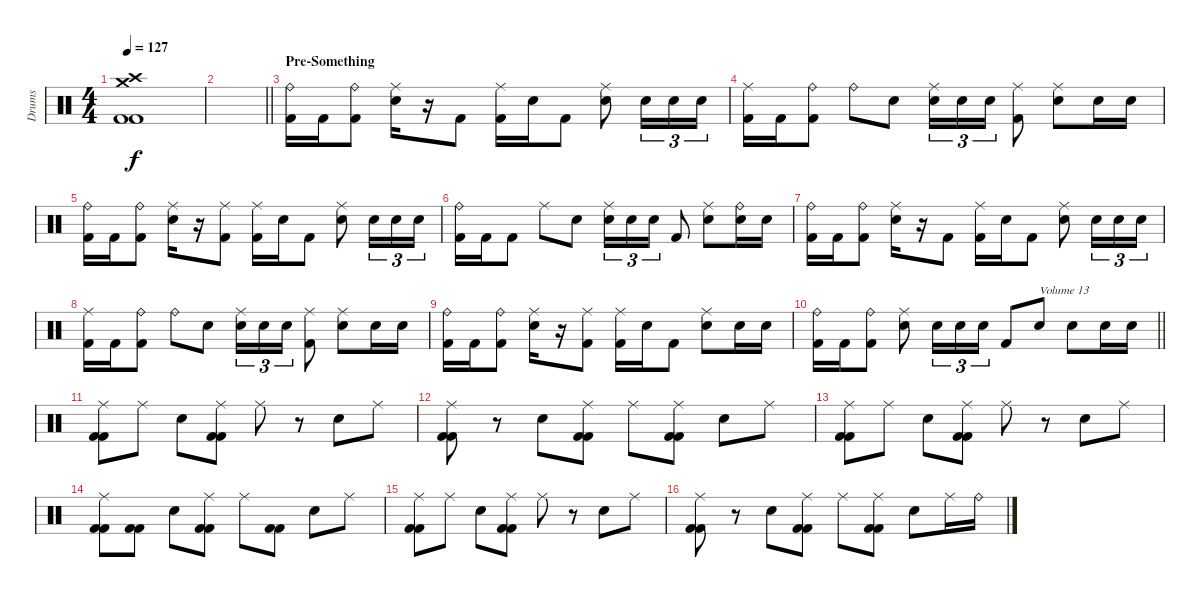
\track ("Drums" "Drums") {instrument percussion}
\staff {score}
\articulation defaults
\ts (4 4)
\tempo 127
\clef neutral
\ks c
("Crash medium (hit)" "Crash high (hit)" "Kick (hit) 2" "Kick (hit) 2").1{dy f} |
\barLineRight lightlight
|
\section ("" "Pre-Something")
("Ride (bell)" "Kick (hit) 2").16 "Kick (hit) 2".16 ("Ride (bell)" "Kick (hit) 2").8 ("Ride (middle)" "Snare (hit) 2").16 r.16 "Kick (hit) 2".8 ("Ride (middle)" "Kick (hit) 2").16 "Snare (hit) 2".16 "Kick (hit) 2".8 ("Ride (middle)" "Snare (hit) 2").8 "Snare (hit) 2".16{tu (3 2)} "Snare (hit) 2".16{tu (3 2)} "Snare (hit) 2".16{tu (3 2)} |
("Ride (middle)" "Kick (hit) 2").16 "Kick (hit) 2".16 ("Ride (bell)" "Kick (hit) 2").8 "Ride (bell)".8 "Snare (hit) 2".8 ("Ride (middle)" "Snare (hit) 2").16{tu (3 2)} "Snare (hit) 2".16{tu (3 2)} "Snare (hit) 2".16{tu (3 2)} ("Ride (middle)" "Kick (hit) 2").8 ("Ride (middle)" "Snare (hit) 2").8 "Snare (hit) 2".16 "Snare (hit) 2".16 |
("Ride (bell)" "Kick (hit) 2").16 "Kick (hit) 2".16 ("Ride (bell)" "Kick (hit) 2").8 ("Ride (middle)" "Snare (hit) 2").16 r.16 ("Ride (middle)" "Kick (hit) 2").8 ("Ride (middle)" "Kick (hit) 2").16 "Snare (hit) 2".16 "Kick (hit) 2".8 ("Ride (middle)" "Snare (hit) 2").8 "Snare (hit) 2".16{tu (3 2)} "Snare (hit) 2".16{tu (3 2)} "Snare (hit) 2".16{tu (3 2)} |
("Ride (bell)" "Kick (hit) 2").16 "Kick (hit) 2".16 "Kick (hit) 2".8 "Ride (middle)".8 "Snare (hit) 2".8 ("Ride (middle)" "Snare (hit) 2").16{tu (3 2)} "Snare (hit) 2".16{tu (3 2)} "Snare (hit) 2".16{tu (3 2)} "Kick (hit) 2".8 ("Ride (middle)" "Snare (hit) 2").8 ("Ride (bell)" "Snare (hit) 2").16 "Snare (hit) 2".16 |
("Ride (bell)" "Kick (hit) 2").16 "Kick (hit) 2".16 ("Ride (bell)" "Kick (hit) 2").8 ("Ride (middle)" "Snare (hit) 2").16 r.16 "Kick (hit) 2".8 ("Ride (middle)" "Kick (hit) 2").16 "Snare (hit) 2".16 "Kick (hit) 2".8 ("Ride (middle)" "Snare (hit) 2").8 "Snare (hit) 2".16{tu (3 2)} "Snare (hit) 2".16{tu (3 2)} "Snare (hit) 2".16{tu (3 2)} |
("Ride (middle)" "Kick (hit) 2").16 "Kick (hit) 2".16 ("Ride (bell)" "Kick (hit) 2").8 "Ride (bell)".8 "Snare (hit) 2".8 ("Ride (middle)" "Snare (hit) 2").16{tu (3 2)} "Snare (hit) 2".16{tu (3 2)} "Snare (hit) 2".16{tu (3 2)} ("Ride (middle)" "Kick (hit) 2").8 ("Ride (middle)" "Snare (hit) 2").8 "Snare (hit) 2".16 "Snare (hit) 2".16 |
("Ride (bell)" "Kick (hit) 2").16 "Kick (hit) 2".16 ("Ride (bell)" "Kick (hit) 2").8 ("Ride (middle)" "Snare (hit) 2").16 r.16 ("Ride (middle)" "Kick (hit) 2").8 ("Ride (middle)" "Kick (hit) 2").16 "Snare (hit) 2".16 "Kick (hit) 2".8 ("Ride (middle)" "Snare (hit) 2").8 "Snare (hit) 2".16 "Snare (hit) 2".16 |
\barLineRight lightlight
("Ride (bell)" "Kick (hit) 2").16 "Kick (hit) 2".16 ("Ride (bell)" "Kick (hit) 2").8 ("Ride (middle)" "Snare (hit) 2").8 "Snare (hit) 2".16{tu (3 2)} "Snare (hit) 2".16{tu (3 2)} "Snare (hit) 2".16{tu (3 2)} "Kick (hit) 2".8 "Electric Snare (hit)".8{txt "Volume 13" volume 13} "Electric Snare (hit)".8 "Electric Snare (hit)".16 "Electric Snare (hit)".16 |
("Ride (middle)" "Kick (hit) 2" "Kick (hit) 2").8 "Ride (middle)".8 "Electric Snare (hit)".8 ("Ride (middle)" "Kick (hit) 2" "Kick (hit) 2").8 "Ride (middle)".8 r.8 "Electric Snare (hit)".8 "Ride (middle)".8 |
("Ride (middle)" "Kick (hit) 2" "Kick (hit) 2").8 r.8 "Electric Snare (hit)".8 ("Ride (middle)" "Kick (hit) 2" "Kick (hit) 2").8 "Ride (middle)".8 ("Ride (middle)" "Kick (hit) 2" "Kick (hit) 2").8 "Electric Snare (hit)".8 "Ride (middle)".8 |
("Ride (middle)" "Kick (hit) 2" "Kick (hit) 2").8 "Ride (middle)".8 "Electric Snare (hit)".8 ("Ride (middle)" "Kick (hit) 2" "Kick (hit) 2").8 "Ride (middle)".8 r.8 "Electric Snare (hit)".8 "Ride (middle)".8 |
("Ride (middle)" "Kick (hit) 2" "Kick (hit) 2").8 ("Kick (hit) 2" "Kick (hit) 2").8 "Electric Snare (hit)".8 ("Ride (middle)" "Kick (hit) 2" "Kick (hit) 2").8 "Ride (middle)".8 ("Kick (hit) 2" "Kick (hit) 2").8 "Electric Snare (hit)".8 "Ride (middle)".8 |
("Ride (middle)" "Kick (hit) 2" "Kick (hit) 2").8 "Ride (middle)".8 "Electric Snare (hit)".8 ("Ride (middle)" "Kick (hit) 2" "Kick (hit) 2").8 "Ride (middle)".8 r.8 "Electric Snare (hit)".8 "Ride (middle)".8 |
("Ride (middle)" "Kick (hit) 2" "Kick (hit) 2").8 r.8 "Electric Snare (hit)".8 ("Ride (middle)" "Kick (hit) 2" "Kick (hit) 2").8 "Ride (middle)".8 ("Ride (middle)" "Kick (hit) 2" "Kick (hit) 2").8 "Electric Snare (hit)".8 "Ride (middle)".16 "Ride (bell)".16
